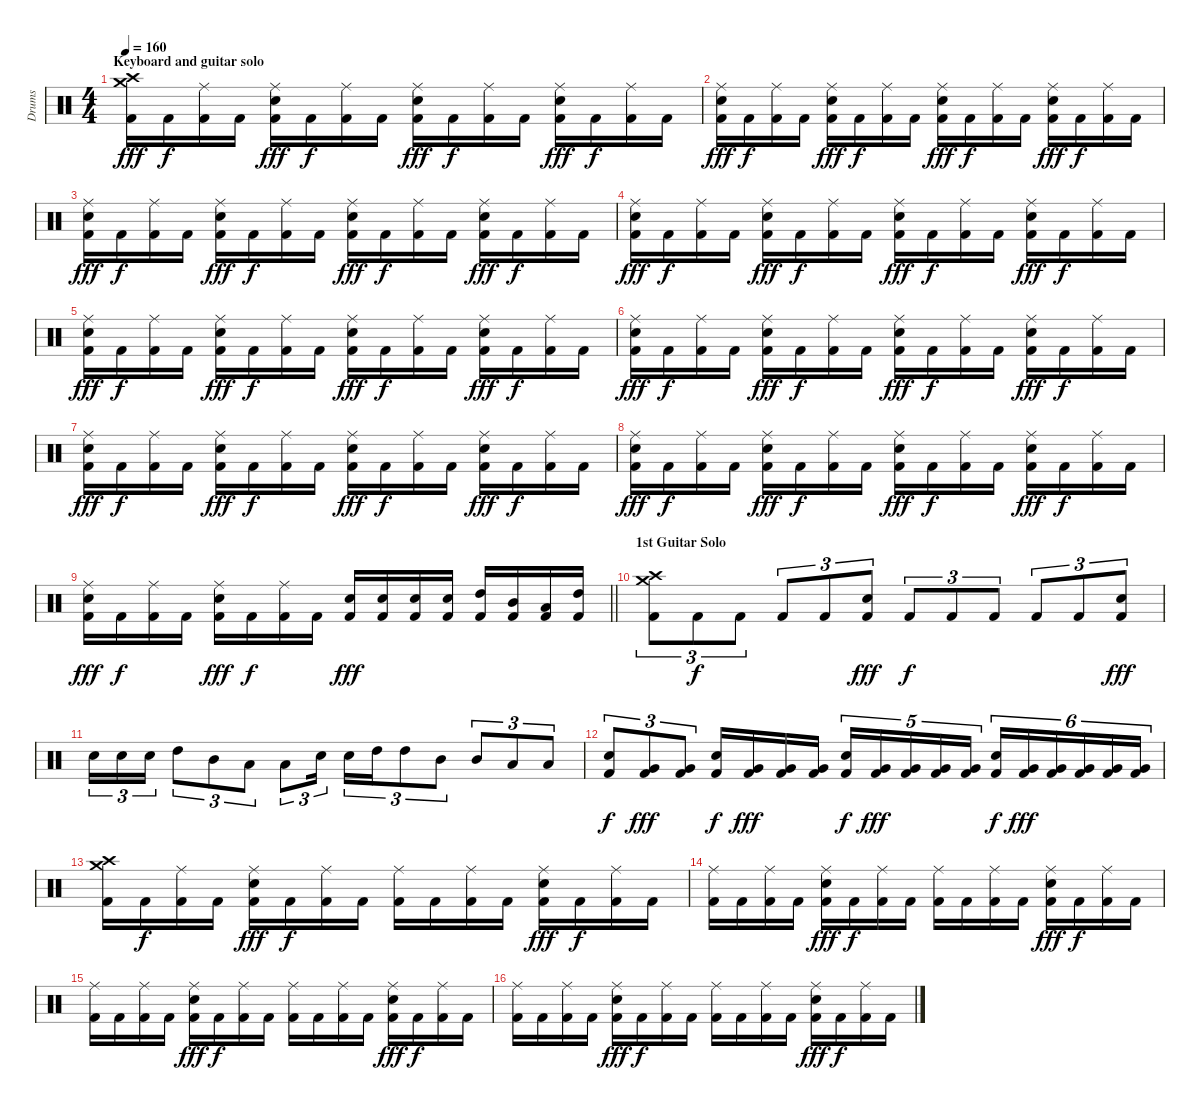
\track ("Drums" "Drums") {instrument percussion}
\staff {score}
\articulation defaults
\ts (4 4)
\section ("" "Keyboard and guitar solo")
\tempo 160
\clef neutral
\ks c
("Crash high (hit)" "Crash medium (hit)" "Kick (hit) 2").16{dy fff} "Kick (hit) 2".16{dy f} ("Ride (middle)" "Kick (hit) 2").16 "Kick (hit) 2".16 ("Ride (middle)" "Electric Snare (hit)" "Kick (hit) 2").16{dy fff} "Kick (hit) 2".16{dy f} ("Ride (middle)" "Kick (hit) 2").16 "Kick (hit) 2".16 ("Ride (middle)" "Electric Snare (hit)" "Kick (hit) 2").16{dy fff} "Kick (hit) 2".16{dy f} ("Ride (middle)" "Kick (hit) 2").16 "Kick (hit) 2".16 ("Ride (middle)" "Electric Snare (hit)" "Kick (hit) 2").16{dy fff} "Kick (hit) 2".16{dy f} ("Ride (middle)" "Kick (hit) 2").16 "Kick (hit) 2".16 |
("Ride (middle)" "Electric Snare (hit)" "Kick (hit) 2").16{dy fff} "Kick (hit) 2".16{dy f} ("Ride (middle)" "Kick (hit) 2").16 "Kick (hit) 2".16 ("Ride (middle)" "Electric Snare (hit)" "Kick (hit) 2").16{dy fff} "Kick (hit) 2".16{dy f} ("Ride (middle)" "Kick (hit) 2").16 "Kick (hit) 2".16 ("Ride (middle)" "Electric Snare (hit)" "Kick (hit) 2").16{dy fff} "Kick (hit) 2".16{dy f} ("Ride (middle)" "Kick (hit) 2").16 "Kick (hit) 2".16 ("Ride (middle)" "Electric Snare (hit)" "Kick (hit) 2").16{dy fff} "Kick (hit) 2".16{dy f} ("Ride (middle)" "Kick (hit) 2").16 "Kick (hit) 2".16 |
("Ride (middle)" "Electric Snare (hit)" "Kick (hit) 2").16{dy fff} "Kick (hit) 2".16{dy f} ("Ride (middle)" "Kick (hit) 2").16 "Kick (hit) 2".16 ("Ride (middle)" "Electric Snare (hit)" "Kick (hit) 2").16{dy fff} "Kick (hit) 2".16{dy f} ("Ride (middle)" "Kick (hit) 2").16 "Kick (hit) 2".16 ("Ride (middle)" "Electric Snare (hit)" "Kick (hit) 2").16{dy fff} "Kick (hit) 2".16{dy f} ("Ride (middle)" "Kick (hit) 2").16 "Kick (hit) 2".16 ("Ride (middle)" "Electric Snare (hit)" "Kick (hit) 2").16{dy fff} "Kick (hit) 2".16{dy f} ("Ride (middle)" "Kick (hit) 2").16 "Kick (hit) 2".16 |
("Ride (middle)" "Electric Snare (hit)" "Kick (hit) 2").16{dy fff} "Kick (hit) 2".16{dy f} ("Ride (middle)" "Kick (hit) 2").16 "Kick (hit) 2".16 ("Ride (middle)" "Electric Snare (hit)" "Kick (hit) 2").16{dy fff} "Kick (hit) 2".16{dy f} ("Ride (middle)" "Kick (hit) 2").16 "Kick (hit) 2".16 ("Ride (middle)" "Electric Snare (hit)" "Kick (hit) 2").16{dy fff} "Kick (hit) 2".16{dy f} ("Ride (middle)" "Kick (hit) 2").16 "Kick (hit) 2".16 ("Ride (middle)" "Electric Snare (hit)" "Kick (hit) 2").16{dy fff} "Kick (hit) 2".16{dy f} ("Ride (middle)" "Kick (hit) 2").16 "Kick (hit) 2".16 |
("Ride (middle)" "Electric Snare (hit)" "Kick (hit) 2").16{dy fff} "Kick (hit) 2".16{dy f} ("Ride (middle)" "Kick (hit) 2").16 "Kick (hit) 2".16 ("Ride (middle)" "Electric Snare (hit)" "Kick (hit) 2").16{dy fff} "Kick (hit) 2".16{dy f} ("Ride (middle)" "Kick (hit) 2").16 "Kick (hit) 2".16 ("Ride (middle)" "Electric Snare (hit)" "Kick (hit) 2").16{dy fff} "Kick (hit) 2".16{dy f} ("Ride (middle)" "Kick (hit) 2").16 "Kick (hit) 2".16 ("Ride (middle)" "Electric Snare (hit)" "Kick (hit) 2").16{dy fff} "Kick (hit) 2".16{dy f} ("Ride (middle)" "Kick (hit) 2").16 "Kick (hit) 2".16 |
("Ride (middle)" "Electric Snare (hit)" "Kick (hit) 2").16{dy fff} "Kick (hit) 2".16{dy f} ("Ride (middle)" "Kick (hit) 2").16 "Kick (hit) 2".16 ("Ride (middle)" "Electric Snare (hit)" "Kick (hit) 2").16{dy fff} "Kick (hit) 2".16{dy f} ("Ride (middle)" "Kick (hit) 2").16 "Kick (hit) 2".16 ("Ride (middle)" "Electric Snare (hit)" "Kick (hit) 2").16{dy fff} "Kick (hit) 2".16{dy f} ("Ride (middle)" "Kick (hit) 2").16 "Kick (hit) 2".16 ("Ride (middle)" "Electric Snare (hit)" "Kick (hit) 2").16{dy fff} "Kick (hit) 2".16{dy f} ("Ride (middle)" "Kick (hit) 2").16 "Kick (hit) 2".16 |
("Ride (middle)" "Electric Snare (hit)" "Kick (hit) 2").16{dy fff} "Kick (hit) 2".16{dy f} ("Ride (middle)" "Kick (hit) 2").16 "Kick (hit) 2".16 ("Ride (middle)" "Electric Snare (hit)" "Kick (hit) 2").16{dy fff} "Kick (hit) 2".16{dy f} ("Ride (middle)" "Kick (hit) 2").16 "Kick (hit) 2".16 ("Ride (middle)" "Electric Snare (hit)" "Kick (hit) 2").16{dy fff} "Kick (hit) 2".16{dy f} ("Ride (middle)" "Kick (hit) 2").16 "Kick (hit) 2".16 ("Ride (middle)" "Electric Snare (hit)" "Kick (hit) 2").16{dy fff} "Kick (hit) 2".16{dy f} ("Ride (middle)" "Kick (hit) 2").16 "Kick (hit) 2".16 |
("Ride (middle)" "Electric Snare (hit)" "Kick (hit) 2").16{dy fff} "Kick (hit) 2".16{dy f} ("Ride (middle)" "Kick (hit) 2").16 "Kick (hit) 2".16 ("Ride (middle)" "Electric Snare (hit)" "Kick (hit) 2").16{dy fff} "Kick (hit) 2".16{dy f} ("Ride (middle)" "Kick (hit) 2").16 "Kick (hit) 2".16 ("Ride (middle)" "Electric Snare (hit)" "Kick (hit) 2").16{dy fff} "Kick (hit) 2".16{dy f} ("Ride (middle)" "Kick (hit) 2").16 "Kick (hit) 2".16 ("Ride (middle)" "Electric Snare (hit)" "Kick (hit) 2").16{dy fff} "Kick (hit) 2".16{dy f} ("Ride (middle)" "Kick (hit) 2").16 "Kick (hit) 2".16 |
\barLineRight lightlight
("Ride (middle)" "Electric Snare (hit)" "Kick (hit) 2").16{dy fff} "Kick (hit) 2".16{dy f} ("Ride (middle)" "Kick (hit) 2").16 "Kick (hit) 2".16 ("Ride (middle)" "Electric Snare (hit)" "Kick (hit) 2").16{dy fff} "Kick (hit) 2".16{dy f} ("Ride (middle)" "Kick (hit) 2").16 "Kick (hit) 2".16 ("Electric Snare (hit)" "Kick (hit) 2").16{dy fff} ("Electric Snare (hit)" "Kick (hit) 2").16 ("Electric Snare (hit)" "Kick (hit) 2").16 ("Electric Snare (hit)" "Kick (hit) 2").16 ("High Tom (hit)" "Kick (hit) 2").16 ("Mid Tom (hit)" "Kick (hit) 2").16 ("Low Tom (hit)" "Kick (hit) 2").16 ("High Tom (hit)" "Kick (hit) 2").16 |
\section ("" "1st Guitar Solo")
("Crash high (hit)" "Crash medium (hit)" "Kick (hit) 2").8{tu (3 2)} "Kick (hit) 2".8{tu (3 2) dy f} "Kick (hit) 2".8{tu (3 2)} "Kick (hit) 2".8{tu (3 2)} "Kick (hit) 2".8{tu (3 2)} ("Electric Snare (hit)" "Kick (hit) 2").8{tu (3 2) dy fff} "Kick (hit) 2".8{tu (3 2) dy f} "Kick (hit) 2".8{tu (3 2)} "Kick (hit) 2".8{tu (3 2)} "Kick (hit) 2".8{tu (3 2)} "Kick (hit) 2".8{tu (3 2)} ("Electric Snare (hit)" "Kick (hit) 2").8{tu (3 2) dy fff} |
"Electric Snare (hit)".16{tu (3 2)} "Electric Snare (hit)".16{tu (3 2)} "Electric Snare (hit)".16{tu (3 2)} "High Tom (hit)".8{tu (3 2)} "Mid Tom (hit)".8{tu (3 2)} "Low Tom (hit)".8{tu (3 2)} "Low Tom (hit)".8{tu (3 2)} "Electric Snare (hit)".16{tu (3 2)} "Electric Snare (hit)".16{tu (3 2)} "High Tom (hit)".16{tu (3 2)} "High Tom (hit)".8{tu (3 2)} "Mid Tom (hit)".8{tu (3 2)} "Mid Tom (hit)".8{tu (3 2)} "Low Tom (hit)".8{tu (3 2)} "Low Tom (hit)".8{tu (3 2)} |
("Electric Snare (hit)" "Kick (hit) 2").8{tu (3 2) dy f} ("Very Low Tom (hit)" "Kick (hit) 2").8{tu (3 2) dy fff} ("Very Low Tom (hit)" "Kick (hit) 2").8{tu (3 2)} ("Electric Snare (hit)" "Kick (hit) 2").16{dy f} ("Very Low Tom (hit)" "Kick (hit) 2").16{dy fff} ("Very Low Tom (hit)" "Kick (hit) 2").16 ("Very Low Tom (hit)" "Kick (hit) 2").16 ("Electric Snare (hit)" "Kick (hit) 2").16{tu (5 4) dy f} ("Very Low Tom (hit)" "Kick (hit) 2").16{tu (5 4) dy fff} ("Very Low Tom (hit)" "Kick (hit) 2").16{tu (5 4)} ("Very Low Tom (hit)" "Kick (hit) 2").16{tu (5 4)} ("Very Low Tom (hit)" "Kick (hit) 2").16{tu (5 4)} ("Electric Snare (hit)" "Kick (hit) 2").16{tu (6 4) dy f} ("Very Low Tom (hit)" "Kick (hit) 2").16{tu (6 4) dy fff} ("Very Low Tom (hit)" "Kick (hit) 2").16{tu (6 4)} ("Very Low Tom (hit)" "Kick (hit) 2").16{tu (6 4)} ("Very Low Tom (hit)" "Kick (hit) 2").16{tu (6 4)} ("Very Low Tom (hit)" "Kick (hit) 2").16{tu (6 4)} |
("Crash high (hit)" "Crash medium (hit)" "Kick (hit) 2").16 "Kick (hit) 2".16{dy f} ("Ride (middle)" "Kick (hit) 2").16 "Kick (hit) 2".16 ("Ride (middle)" "Electric Snare (hit)" "Kick (hit) 2").16{dy fff} "Kick (hit) 2".16{dy f} ("Ride (middle)" "Kick (hit) 2").16 "Kick (hit) 2".16 ("Ride (middle)" "Kick (hit) 2").16 "Kick (hit) 2".16 ("Ride (middle)" "Kick (hit) 2").16 "Kick (hit) 2".16 ("Ride (middle)" "Electric Snare (hit)" "Kick (hit) 2").16{dy fff} "Kick (hit) 2".16{dy f} ("Ride (middle)" "Kick (hit) 2").16 "Kick (hit) 2".16 |
("Ride (middle)" "Kick (hit) 2").16 "Kick (hit) 2".16 ("Ride (middle)" "Kick (hit) 2").16 "Kick (hit) 2".16 ("Ride (middle)" "Electric Snare (hit)" "Kick (hit) 2").16{dy fff} "Kick (hit) 2".16{dy f} ("Ride (middle)" "Kick (hit) 2").16 "Kick (hit) 2".16 ("Ride (middle)" "Kick (hit) 2").16 "Kick (hit) 2".16 ("Ride (middle)" "Kick (hit) 2").16 "Kick (hit) 2".16 ("Ride (middle)" "Electric Snare (hit)" "Kick (hit) 2").16{dy fff} "Kick (hit) 2".16{dy f} ("Ride (middle)" "Kick (hit) 2").16 "Kick (hit) 2".16 |
("Ride (middle)" "Kick (hit) 2").16 "Kick (hit) 2".16 ("Ride (middle)" "Kick (hit) 2").16 "Kick (hit) 2".16 ("Ride (middle)" "Electric Snare (hit)" "Kick (hit) 2").16{dy fff} "Kick (hit) 2".16{dy f} ("Ride (middle)" "Kick (hit) 2").16 "Kick (hit) 2".16 ("Ride (middle)" "Kick (hit) 2").16 "Kick (hit) 2".16 ("Ride (middle)" "Kick (hit) 2").16 "Kick (hit) 2".16 ("Ride (middle)" "Electric Snare (hit)" "Kick (hit) 2").16{dy fff} "Kick (hit) 2".16{dy f} ("Ride (middle)" "Kick (hit) 2").16 "Kick (hit) 2".16 |
("Ride (middle)" "Kick (hit) 2").16 "Kick (hit) 2".16 ("Ride (middle)" "Kick (hit) 2").16 "Kick (hit) 2".16 ("Ride (middle)" "Electric Snare (hit)" "Kick (hit) 2").16{dy fff} "Kick (hit) 2".16{dy f} ("Ride (middle)" "Kick (hit) 2").16 "Kick (hit) 2".16 ("Ride (middle)" "Kick (hit) 2").16 "Kick (hit) 2".16 ("Ride (middle)" "Kick (hit) 2").16 "Kick (hit) 2".16 ("Ride (middle)" "Electric Snare (hit)" "Kick (hit) 2").16{dy fff} "Kick (hit) 2".16{dy f} ("Ride (middle)" "Kick (hit) 2").16 "Kick (hit) 2".16
